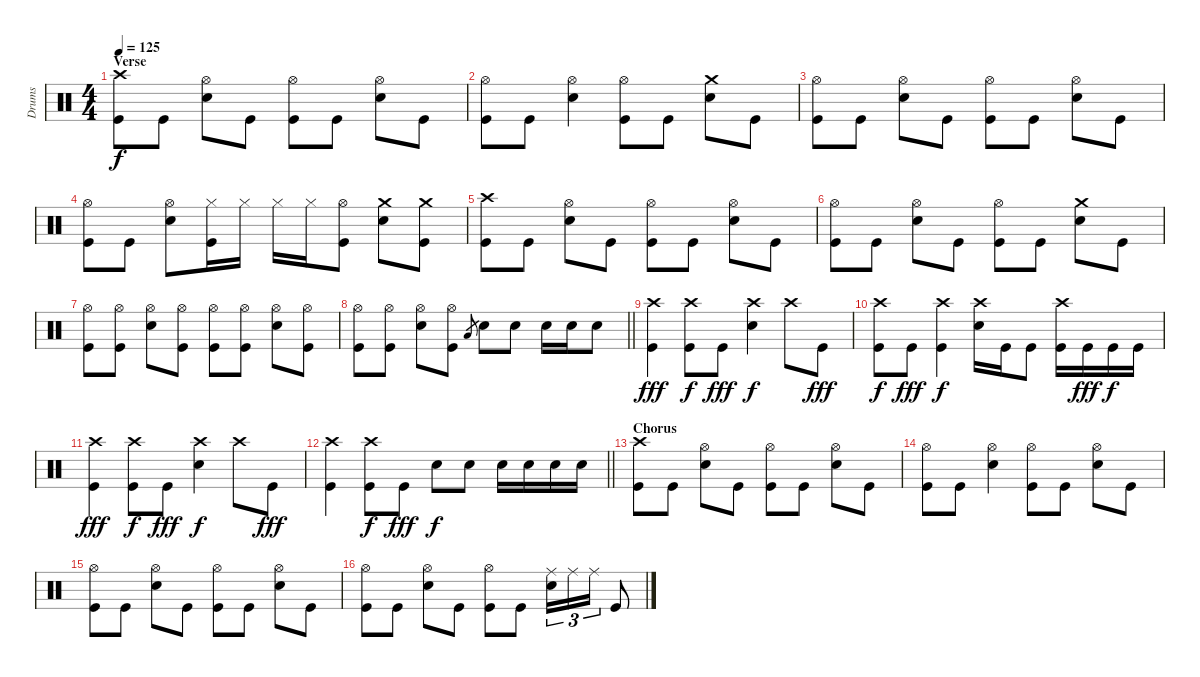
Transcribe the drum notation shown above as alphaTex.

\track ("Drums" "Drums") {instrument percussion}
\staff {score}
\articulation defaults
\ts (4 4)
\section ("" "Verse ")
\tempo 125
\clef neutral
\ks c
("Crash high (hit)" "Kick (hit)").8{dy f} "Kick (hit)".8 ("Hi-Hat (open)" "Electric Snare (hit)").8 "Kick (hit)".8 ("Hi-Hat (open)" "Kick (hit)").8 "Kick (hit)".8 ("Hi-Hat (open)" "Electric Snare (hit)").8 "Kick (hit)".8 |
("Hi-Hat (open)" "Kick (hit)").8 "Kick (hit)".8 ("Hi-Hat (open)" "Electric Snare (hit)").4 ("Hi-Hat (open)" "Kick (hit)").8 "Kick (hit)".8 ("Crash medium (hit)" "Electric Snare (hit)").8 "Kick (hit)".8 |
("Hi-Hat (open)" "Kick (hit)").8 "Kick (hit)".8 ("Hi-Hat (open)" "Electric Snare (hit)").8 "Kick (hit)".8 ("Hi-Hat (open)" "Kick (hit)").8 "Kick (hit)".8 ("Hi-Hat (open)" "Electric Snare (hit)").8 "Kick (hit)".8 |
("Hi-Hat (open)" "Kick (hit)").8 "Kick (hit)".8 ("Hi-Hat (open)" "Electric Snare (hit)").8 ("Hi-Hat (closed)" "Kick (hit)").16 "Hi-Hat (closed)".16 "Hi-Hat (closed)".16 "Hi-Hat (closed)".16 ("Hi-Hat (open)" "Kick (hit)").8 ("Crash medium (hit)" "Electric Snare (hit)").8 ("Crash medium (hit)" "Kick (hit)").8 |
("Crash high (hit)" "Kick (hit)").8 "Kick (hit)".8 ("Hi-Hat (open)" "Electric Snare (hit)").8 "Kick (hit)".8 ("Hi-Hat (open)" "Kick (hit)").8 "Kick (hit)".8 ("Hi-Hat (open)" "Electric Snare (hit)").8 "Kick (hit)".8 |
("Hi-Hat (open)" "Kick (hit)").8 "Kick (hit)".8 ("Hi-Hat (open)" "Electric Snare (hit)").8 "Kick (hit)".8 ("Hi-Hat (open)" "Kick (hit)").8 "Kick (hit)".8 ("Crash medium (hit)" "Electric Snare (hit)").8 "Kick (hit)".8 |
("Hi-Hat (open)" "Kick (hit)").8 ("Hi-Hat (open)" "Kick (hit)").8 ("Hi-Hat (open)" "Electric Snare (hit)").8 ("Hi-Hat (open)" "Kick (hit)").8 ("Hi-Hat (open)" "Kick (hit)").8 ("Hi-Hat (open)" "Kick (hit)").8 ("Hi-Hat (open)" "Electric Snare (hit)").8 ("Hi-Hat (open)" "Kick (hit)").8 |
\barLineRight lightlight
("Hi-Hat (open)" "Kick (hit)").8 ("Hi-Hat (open)" "Kick (hit)").8 ("Hi-Hat (open)" "Electric Snare (hit)").8 ("Hi-Hat (open)" "Kick (hit)").8 "Low Floor Tom (hit)".8{gr} "Electric Snare (hit)".8 "Electric Snare (hit)".8 "Electric Snare (hit)".16 "Electric Snare (hit)".16 "Electric Snare (hit)".8 |
\section ("" "")
("Crash high (hit)" "Kick (hit)").4{dy fff} ("Crash high (hit)" "Kick (hit)").8{dy f} "Kick (hit)".8{dy fff} ("Crash high (hit)" "Electric Snare (hit)").4{dy f} "Crash high (hit)".8 "Kick (hit)".8{dy fff} |
("Crash high (hit)" "Kick (hit)").8{dy f} "Kick (hit)".8{dy fff} ("Crash high (hit)" "Kick (hit)").4{dy f} ("Crash high (hit)" "Electric Snare (hit)").16 "Kick (hit)".16 "Kick (hit)".8 ("Crash high (hit)" "Kick (hit)").16 "Kick (hit)".16{dy fff} "Kick (hit)".16{dy f} "Kick (hit)".16 |
("Crash high (hit)" "Kick (hit)").4{dy fff} ("Crash high (hit)" "Kick (hit)").8{dy f} "Kick (hit)".8{dy fff} ("Crash high (hit)" "Electric Snare (hit)").4{dy f} "Crash high (hit)".8 "Kick (hit)".8{dy fff} |
\barLineRight lightlight
("Crash high (hit)" "Kick (hit)").4 ("Crash high (hit)" "Kick (hit)").8{dy f} "Kick (hit)".8{dy fff} "Electric Snare (hit)".8{dy f} "Electric Snare (hit)".8 "Electric Snare (hit)".16 "Electric Snare (hit)".16 "Electric Snare (hit)".16 "Electric Snare (hit)".16 |
\section ("" "Chorus")
("Crash high (hit)" "Kick (hit)").8 "Kick (hit)".8 ("Hi-Hat (open)" "Electric Snare (hit)").8 "Kick (hit)".8 ("Hi-Hat (open)" "Kick (hit)").8 "Kick (hit)".8 ("Hi-Hat (open)" "Electric Snare (hit)").8 "Kick (hit)".8 |
("Hi-Hat (open)" "Kick (hit)").8 "Kick (hit)".8 ("Hi-Hat (open)" "Electric Snare (hit)").4 ("Hi-Hat (open)" "Kick (hit)").8 "Kick (hit)".8 ("Hi-Hat (open)" "Electric Snare (hit)").8 "Kick (hit)".8 |
("Hi-Hat (open)" "Kick (hit)").8 "Kick (hit)".8 ("Hi-Hat (open)" "Electric Snare (hit)").8 "Kick (hit)".8 ("Hi-Hat (open)" "Kick (hit)").8 "Kick (hit)".8 ("Hi-Hat (open)" "Electric Snare (hit)").8 "Kick (hit)".8 |
("Hi-Hat (open)" "Kick (hit)").8 "Kick (hit)".8 ("Hi-Hat (open)" "Electric Snare (hit)").8 "Kick (hit)".8 ("Hi-Hat (open)" "Kick (hit)").8 "Kick (hit)".8 ("Ride (middle)" "Electric Snare (hit)").16{tu (3 2)} "Ride (middle)".16{tu (3 2)} "Ride (middle)".16{tu (3 2)} "Kick (hit)".8
